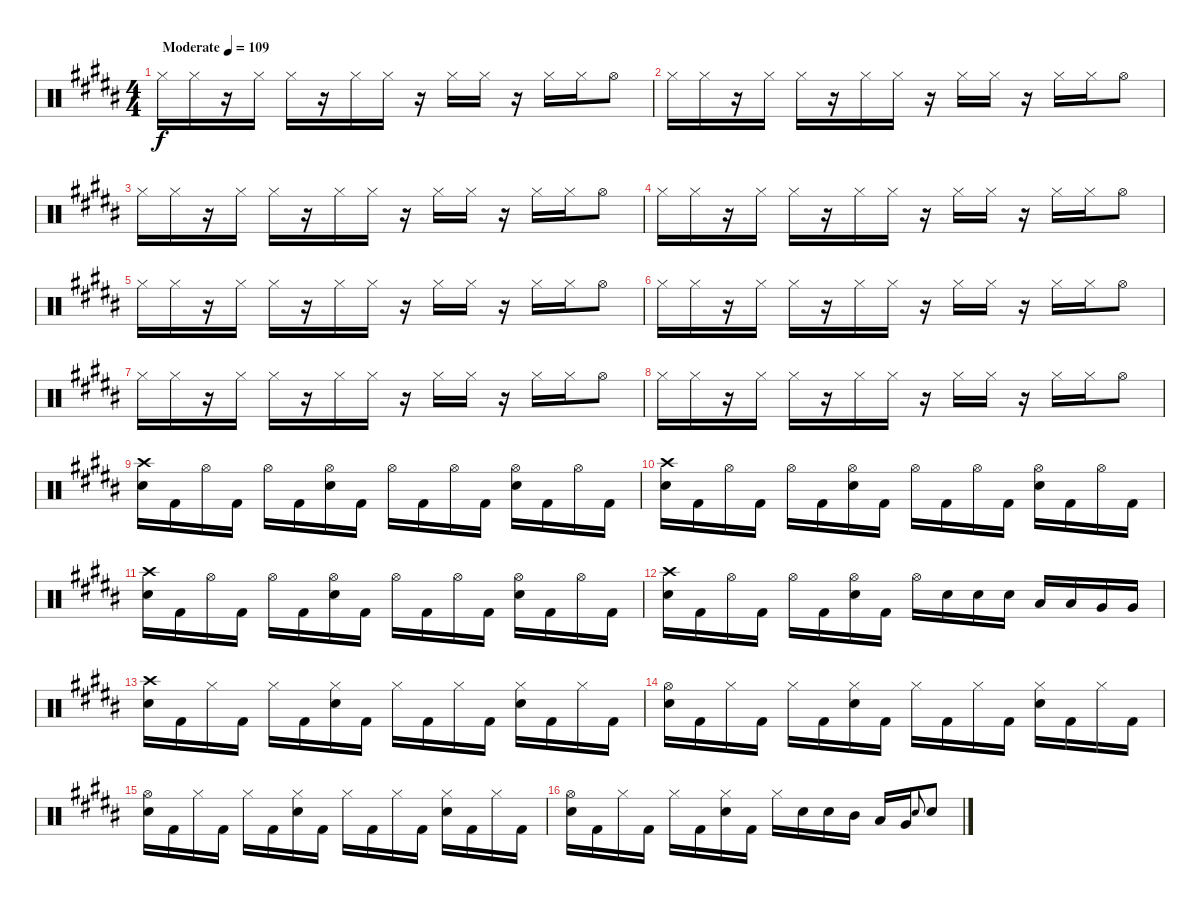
\track "" {instrument percussion}
\staff {score}
\articulation defaults
\ts (4 4)
\tempo (109 "Moderate")
\clef neutral
\ks g#minor "Hi-Hat (closed)".16{dy f} "Hi-Hat (closed)".16
r.16 "Hi-Hat (closed)".16 "Hi-Hat (closed)".16 r.16 "Hi-Hat (closed)".16 "Hi-Hat (closed)".16 r.16 "Hi-Hat (closed)".16 "Hi-Hat (closed)".16 r.16 "Hi-Hat (closed)".16 "Hi-Hat (closed)".16 "Hi-Hat (open)".8 |
"Hi-Hat (closed)".16 "Hi-Hat (closed)".16 r.16 "Hi-Hat (closed)".16 "Hi-Hat (closed)".16 r.16 "Hi-Hat (closed)".16 "Hi-Hat (closed)".16 r.16 "Hi-Hat (closed)".16 "Hi-Hat (closed)".16 r.16 "Hi-Hat (closed)".16 "Hi-Hat (closed)".16 "Hi-Hat (open)".8 |
"Hi-Hat (closed)".16 "Hi-Hat (closed)".16 r.16 "Hi-Hat (closed)".16 "Hi-Hat (closed)".16 r.16 "Hi-Hat (closed)".16 "Hi-Hat (closed)".16 r.16 "Hi-Hat (closed)".16 "Hi-Hat (closed)".16 r.16 "Hi-Hat (closed)".16 "Hi-Hat (closed)".16 "Hi-Hat (open)".8 |
"Hi-Hat (closed)".16 "Hi-Hat (closed)".16 r.16 "Hi-Hat (closed)".16 "Hi-Hat (closed)".16 r.16 "Hi-Hat (closed)".16 "Hi-Hat (closed)".16 r.16 "Hi-Hat (closed)".16 "Hi-Hat (closed)".16 r.16 "Hi-Hat (closed)".16 "Hi-Hat (closed)".16 "Hi-Hat (open)".8 |
"Hi-Hat (closed)".16 "Hi-Hat (closed)".16 r.16 "Hi-Hat (closed)".16 "Hi-Hat (closed)".16 r.16 "Hi-Hat (closed)".16 "Hi-Hat (closed)".16 r.16 "Hi-Hat (closed)".16 "Hi-Hat (closed)".16 r.16 "Hi-Hat (closed)".16 "Hi-Hat (closed)".16 "Hi-Hat (open)".8 |
"Hi-Hat (closed)".16 "Hi-Hat (closed)".16 r.16 "Hi-Hat (closed)".16 "Hi-Hat (closed)".16 r.16 "Hi-Hat (closed)".16 "Hi-Hat (closed)".16 r.16 "Hi-Hat (closed)".16 "Hi-Hat (closed)".16 r.16 "Hi-Hat (closed)".16 "Hi-Hat (closed)".16 "Hi-Hat (open)".8 |
"Hi-Hat (closed)".16 "Hi-Hat (closed)".16 r.16 "Hi-Hat (closed)".16 "Hi-Hat (closed)".16 r.16 "Hi-Hat (closed)".16 "Hi-Hat (closed)".16 r.16 "Hi-Hat (closed)".16 "Hi-Hat (closed)".16 r.16 "Hi-Hat (closed)".16 "Hi-Hat (closed)".16 "Hi-Hat (open)".8 |
"Hi-Hat (closed)".16 "Hi-Hat (closed)".16 r.16 "Hi-Hat (closed)".16 "Hi-Hat (closed)".16 r.16 "Hi-Hat (closed)".16 "Hi-Hat (closed)".16 r.16 "Hi-Hat (closed)".16 "Hi-Hat (closed)".16 r.16 "Hi-Hat (closed)".16 "Hi-Hat (closed)".16 "Hi-Hat (open)".8 |
("Crash high (hit)" "Snare (hit) 2").16 "Kick (hit) 2".16 "Hi-Hat (open)".16 "Kick (hit) 2".16 "Hi-Hat (open)".16 "Kick (hit) 2".16 ("Hi-Hat (open)" "Snare (hit) 2").16 "Kick (hit) 2".16 "Hi-Hat (open)".16 "Kick (hit) 2".16 "Hi-Hat (open)".16 "Kick (hit) 2".16 ("Hi-Hat (open)" "Snare (hit) 2").16 "Kick (hit) 2".16 "Hi-Hat (open)".16 "Kick (hit) 2".16 |
("Crash high (hit)" "Snare (hit) 2").16 "Kick (hit) 2".16 "Hi-Hat (open)".16 "Kick (hit) 2".16 "Hi-Hat (open)".16 "Kick (hit) 2".16 ("Hi-Hat (open)" "Snare (hit) 2").16 "Kick (hit) 2".16 "Hi-Hat (open)".16 "Kick (hit) 2".16 "Hi-Hat (open)".16 "Kick (hit) 2".16 ("Hi-Hat (open)" "Snare (hit) 2").16 "Kick (hit) 2".16 "Hi-Hat (open)".16 "Kick (hit) 2".16 |
("Crash high (hit)" "Snare (hit) 2").16 "Kick (hit) 2".16 "Hi-Hat (open)".16 "Kick (hit) 2".16 "Hi-Hat (open)".16 "Kick (hit) 2".16 ("Hi-Hat (open)" "Snare (hit) 2").16 "Kick (hit) 2".16 "Hi-Hat (open)".16 "Kick (hit) 2".16 "Hi-Hat (open)".16 "Kick (hit) 2".16 ("Hi-Hat (open)" "Snare (hit) 2").16 "Kick (hit) 2".16 "Hi-Hat (open)".16 "Kick (hit) 2".16 |
("Crash high (hit)" "Snare (hit) 2").16 "Kick (hit) 2".16 "Hi-Hat (open)".16 "Kick (hit) 2".16 "Hi-Hat (open)".16 "Kick (hit) 2".16 ("Hi-Hat (open)" "Snare (hit) 2").16 "Kick (hit) 2".16 "Hi-Hat (open)".16 "Snare (hit) 2".16 "Snare (hit) 2".16 "Snare (hit) 2".16 "Low Tom (hit)".16 "Low Tom (hit)".16 "Very Low Tom (hit)".16 "Very Low Tom (hit)".16 |
("Crash high (hit)" "Snare (hit) 2").16 "Kick (hit) 2".16 "Hi-Hat (closed)".16 "Kick (hit) 2".16 "Hi-Hat (closed)".16 "Kick (hit) 2".16 ("Hi-Hat (closed)" "Snare (hit) 2").16 "Kick (hit) 2".16 "Hi-Hat (closed)".16 "Kick (hit) 2".16 "Hi-Hat (closed)".16 "Kick (hit) 2".16 ("Hi-Hat (closed)" "Snare (hit) 2").16 "Kick (hit) 2".16 "Hi-Hat (closed)".16 "Kick (hit) 2".16 |
("Hi-Hat (open)" "Snare (hit) 2").16 "Kick (hit) 2".16 "Hi-Hat (closed)".16 "Kick (hit) 2".16 "Hi-Hat (closed)".16 "Kick (hit) 2".16 ("Hi-Hat (closed)" "Snare (hit) 2").16 "Kick (hit) 2".16 "Hi-Hat (closed)".16 "Kick (hit) 2".16 "Hi-Hat (closed)".16 "Kick (hit) 2".16 ("Hi-Hat (closed)" "Snare (hit) 2").16 "Kick (hit) 2".16 "Hi-Hat (closed)".16 "Kick (hit) 2".16 |
("Hi-Hat (open)" "Snare (hit) 2").16 "Kick (hit) 2".16 "Hi-Hat (closed)".16 "Kick (hit) 2".16 "Hi-Hat (closed)".16 "Kick (hit) 2".16 ("Hi-Hat (closed)" "Snare (hit) 2").16 "Kick (hit) 2".16 "Hi-Hat (closed)".16 "Kick (hit) 2".16 "Hi-Hat (closed)".16 "Kick (hit) 2".16 ("Hi-Hat (closed)" "Snare (hit) 2").16 "Kick (hit) 2".16 "Hi-Hat (closed)".16 "Kick (hit) 2".16 |
("Hi-Hat (open)" "Snare (hit) 2").16 "Kick (hit) 2".16 "Hi-Hat (closed)".16 "Kick (hit) 2".16 "Hi-Hat (closed)".16 "Kick (hit) 2".16 ("Hi-Hat (closed)" "Snare (hit) 2").16 "Kick (hit) 2".16 "Hi-Hat (closed)".16 "Snare (hit) 2".16 "Snare (hit) 2".16 "Mid Tom (hit)".16 "Low Tom (hit)".16 "Very Low Tom (hit)".16 "Snare (hit) 2".8{gr onbeat} "Snare (hit) 2".8
